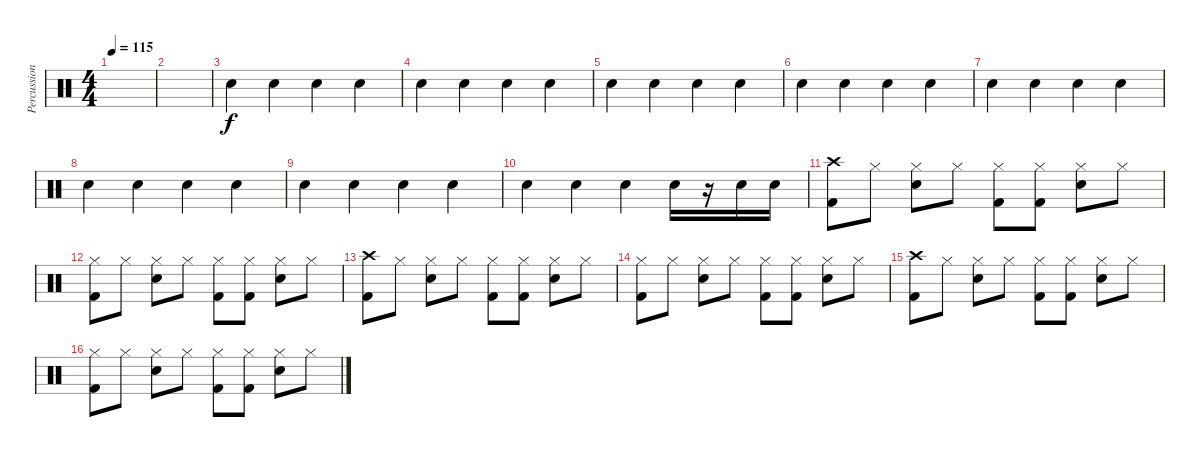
\track ("Percussions" "Percussion") {instrument percussion}
\staff {score}
\articulation defaults
\ts (4 4)
\tempo 115
\clef neutral
\ks c
|
|
"Snare (hit) 2".4 "Snare (hit) 2".4 "Snare (hit) 2".4 "Snare (hit) 2".4 |
"Snare (hit) 2".4 "Snare (hit) 2".4 "Snare (hit) 2".4 "Snare (hit) 2".4 |
"Snare (hit) 2".4 "Snare (hit) 2".4 "Snare (hit) 2".4 "Snare (hit) 2".4 |
"Snare (hit) 2".4 "Snare (hit) 2".4 "Snare (hit) 2".4 "Snare (hit) 2".4 |
"Snare (hit) 2".4 "Snare (hit) 2".4 "Snare (hit) 2".4 "Snare (hit) 2".4 |
"Snare (hit) 2".4 "Snare (hit) 2".4 "Snare (hit) 2".4 "Snare (hit) 2".4 |
"Snare (hit) 2".4 "Snare (hit) 2".4 "Snare (hit) 2".4 "Snare (hit) 2".4 |
"Snare (hit) 2".4 "Snare (hit) 2".4 "Snare (hit) 2".4 "Snare (hit) 2".16 r.16 "Snare (hit) 2".16 "Snare (hit) 2".16 |
("Crash high (hit)" "Kick (hit) 2").8 "Hi-Hat (closed)".8 ("Hi-Hat (closed)" "Snare (hit) 2").8 "Hi-Hat (closed)".8 ("Hi-Hat (closed)" "Kick (hit) 2").8 ("Hi-Hat (closed)" "Kick (hit) 2").8 ("Hi-Hat (closed)" "Snare (hit) 2").8 "Hi-Hat (closed)".8 |
("Hi-Hat (closed)" "Kick (hit) 2").8 "Hi-Hat (closed)".8 ("Hi-Hat (closed)" "Snare (hit) 2").8 "Hi-Hat (closed)".8 ("Hi-Hat (closed)" "Kick (hit) 2").8 ("Hi-Hat (closed)" "Kick (hit) 2").8 ("Hi-Hat (closed)" "Snare (hit) 2").8 "Hi-Hat (closed)".8 |
("Crash high (hit)" "Kick (hit) 2").8 "Hi-Hat (closed)".8 ("Hi-Hat (closed)" "Snare (hit) 2").8 "Hi-Hat (closed)".8 ("Hi-Hat (closed)" "Kick (hit) 2").8 ("Hi-Hat (closed)" "Kick (hit) 2").8 ("Hi-Hat (closed)" "Snare (hit) 2").8 "Hi-Hat (closed)".8 |
("Hi-Hat (closed)" "Kick (hit) 2").8 "Hi-Hat (closed)".8 ("Hi-Hat (closed)" "Snare (hit) 2").8 "Hi-Hat (closed)".8 ("Hi-Hat (closed)" "Kick (hit) 2").8 ("Hi-Hat (closed)" "Kick (hit) 2").8 ("Hi-Hat (closed)" "Snare (hit) 2").8 "Hi-Hat (closed)".8 |
("Crash high (hit)" "Kick (hit) 2").8 "Hi-Hat (closed)".8 ("Hi-Hat (closed)" "Snare (hit) 2").8 "Hi-Hat (closed)".8 ("Hi-Hat (closed)" "Kick (hit) 2").8 ("Hi-Hat (closed)" "Kick (hit) 2").8 ("Hi-Hat (closed)" "Snare (hit) 2").8 "Hi-Hat (closed)".8 |
("Hi-Hat (closed)" "Kick (hit) 2").8 "Hi-Hat (closed)".8 ("Hi-Hat (closed)" "Snare (hit) 2").8 "Hi-Hat (closed)".8 ("Hi-Hat (closed)" "Kick (hit) 2").8 ("Hi-Hat (closed)" "Kick (hit) 2").8 ("Hi-Hat (closed)" "Snare (hit) 2").8 "Hi-Hat (closed)".8
